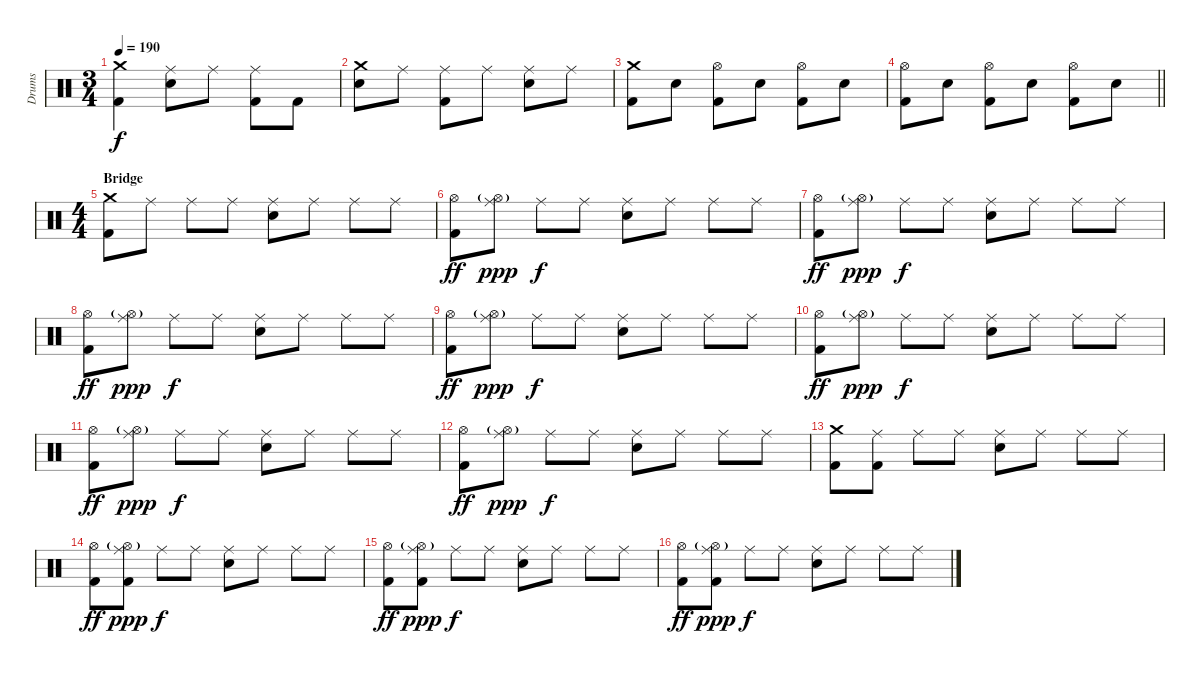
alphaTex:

\track ("Drums" "Drums") {instrument percussion}
\staff {score}
\articulation defaults
\ts (3 4)
\tempo 190
\clef neutral
\ks c
("Crash medium (hit)" "Kick (hit) 2").4{dy f} ("Ride (middle)" "Electric Snare (hit)").8 "Ride (middle)".8 ("Ride (middle)" "Kick (hit) 2").8 "Kick (hit) 2".8 |
("Crash medium (hit)" "Electric Snare (hit)").8 "Ride (middle)".8 ("Ride (middle)" "Kick (hit) 2").8 "Ride (middle)".8 ("Ride (middle)" "Electric Snare (hit)").8 "Ride (middle)".8 |
("Crash medium (hit)" "Kick (hit) 2").8 "Electric Snare (hit)".8 ("Hi-Hat (open)" "Kick (hit) 2").8 "Electric Snare (hit)".8 ("Hi-Hat (open)" "Kick (hit) 2").8 "Electric Snare (hit)".8 |
\barLineRight lightlight
("Hi-Hat (open)" "Kick (hit) 2").8 "Electric Snare (hit)".8 ("Hi-Hat (open)" "Kick (hit) 2").8 "Electric Snare (hit)".8 ("Hi-Hat (open)" "Kick (hit) 2").8 "Electric Snare (hit)".8 |
\ts (4 4)
\section ("" "Bridge")
("Crash medium (hit)" "Kick (hit) 2").8 "Ride (middle)".8 "Ride (middle)".8 "Ride (middle)".8 ("Ride (middle)" "Electric Snare (hit)").8 "Ride (middle)".8 "Ride (middle)".8 "Ride (middle)".8 |
("Hi-Hat (open)" "Kick (hit) 2").8{dy ff} ("Hi-Hat (open)"{g} "Ride (middle)").8{dy ppp} "Ride (middle)".8{dy f} "Ride (middle)".8 ("Ride (middle)" "Electric Snare (hit)").8 "Ride (middle)".8 "Ride (middle)".8 "Ride (middle)".8 |
("Hi-Hat (open)" "Kick (hit) 2").8{dy ff} ("Hi-Hat (open)"{g} "Ride (middle)").8{dy ppp} "Ride (middle)".8{dy f} "Ride (middle)".8 ("Ride (middle)" "Electric Snare (hit)").8 "Ride (middle)".8 "Ride (middle)".8 "Ride (middle)".8 |
("Hi-Hat (open)" "Kick (hit) 2").8{dy ff} ("Hi-Hat (open)"{g} "Ride (middle)").8{dy ppp} "Ride (middle)".8{dy f} "Ride (middle)".8 ("Ride (middle)" "Electric Snare (hit)").8 "Ride (middle)".8 "Ride (middle)".8 "Ride (middle)".8 |
("Hi-Hat (open)" "Kick (hit) 2").8{dy ff} ("Hi-Hat (open)"{g} "Ride (middle)").8{dy ppp} "Ride (middle)".8{dy f} "Ride (middle)".8 ("Ride (middle)" "Electric Snare (hit)").8 "Ride (middle)".8 "Ride (middle)".8 "Ride (middle)".8 |
("Hi-Hat (open)" "Kick (hit) 2").8{dy ff} ("Hi-Hat (open)"{g} "Ride (middle)").8{dy ppp} "Ride (middle)".8{dy f} "Ride (middle)".8 ("Ride (middle)" "Electric Snare (hit)").8 "Ride (middle)".8 "Ride (middle)".8 "Ride (middle)".8 |
("Hi-Hat (open)" "Kick (hit) 2").8{dy ff} ("Hi-Hat (open)"{g} "Ride (middle)").8{dy ppp} "Ride (middle)".8{dy f} "Ride (middle)".8 ("Ride (middle)" "Electric Snare (hit)").8 "Ride (middle)".8 "Ride (middle)".8 "Ride (middle)".8 |
("Hi-Hat (open)" "Kick (hit) 2").8{dy ff} ("Hi-Hat (open)"{g} "Ride (middle)").8{dy ppp} "Ride (middle)".8{dy f} "Ride (middle)".8 ("Ride (middle)" "Electric Snare (hit)").8 "Ride (middle)".8 "Ride (middle)".8 "Ride (middle)".8 |
("Crash medium (hit)" "Kick (hit) 2").8 ("Ride (middle)" "Kick (hit) 2").8 "Ride (middle)".8 "Ride (middle)".8 ("Ride (middle)" "Electric Snare (hit)").8 "Ride (middle)".8 "Ride (middle)".8 "Ride (middle)".8 |
("Hi-Hat (open)" "Kick (hit) 2").8{dy ff} ("Hi-Hat (open)"{g} "Ride (middle)" "Kick (hit) 2").8{dy ppp} "Ride (middle)".8{dy f} "Ride (middle)".8 ("Ride (middle)" "Electric Snare (hit)").8 "Ride (middle)".8 "Ride (middle)".8 "Ride (middle)".8 |
("Hi-Hat (open)" "Kick (hit) 2").8{dy ff} ("Hi-Hat (open)"{g} "Ride (middle)" "Kick (hit) 2").8{dy ppp} "Ride (middle)".8{dy f} "Ride (middle)".8 ("Ride (middle)" "Electric Snare (hit)").8 "Ride (middle)".8 "Ride (middle)".8 "Ride (middle)".8 |
("Hi-Hat (open)" "Kick (hit) 2").8{dy ff} ("Hi-Hat (open)"{g} "Ride (middle)" "Kick (hit) 2").8{dy ppp} "Ride (middle)".8{dy f} "Ride (middle)".8 ("Ride (middle)" "Electric Snare (hit)").8 "Ride (middle)".8 "Ride (middle)".8 "Ride (middle)".8
